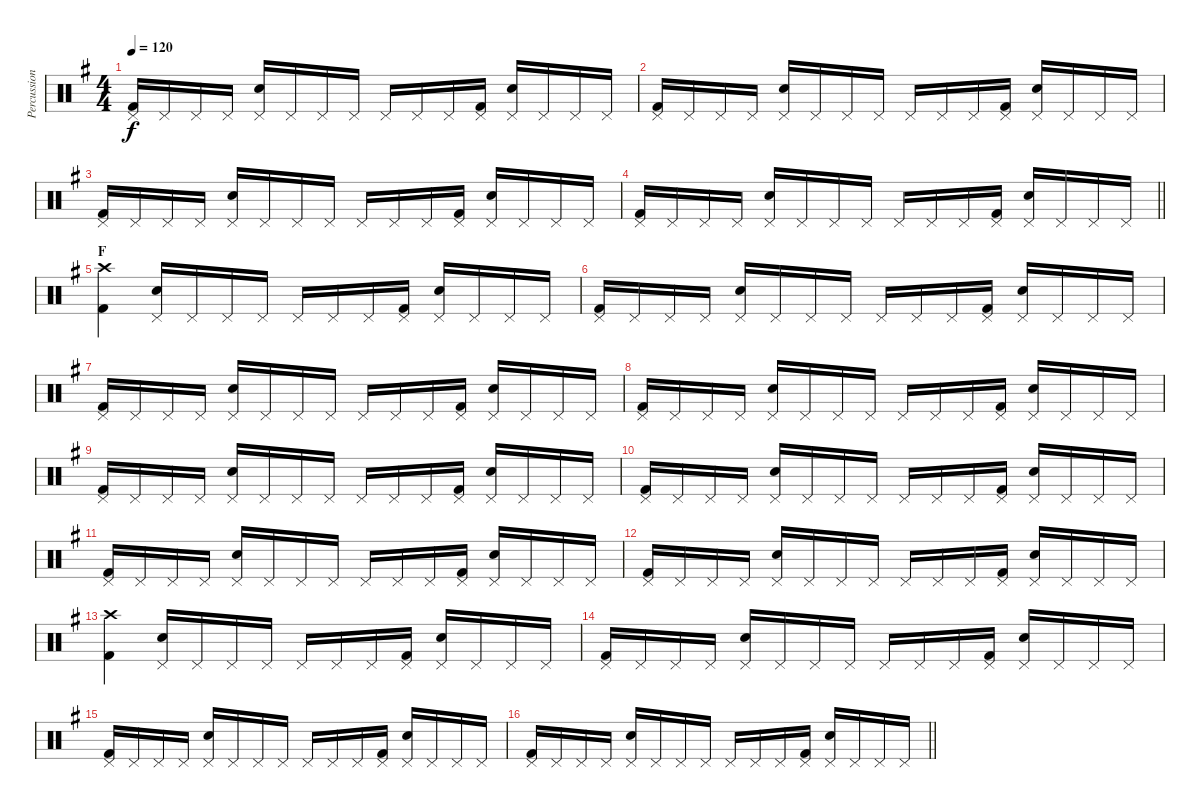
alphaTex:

\track ("Percussion" "Percussion") {instrument percussion}
\staff {score}
\articulation defaults
\ts (4 4)
\tempo 120
\clef neutral
\ks g
("Pedal Hi-Hat (hit)" "Kick (hit) 2").16{dy f} "Pedal Hi-Hat (hit)".16 "Pedal Hi-Hat (hit)".16 "Pedal Hi-Hat (hit)".16 ("Pedal Hi-Hat (hit)" "Electric Snare (hit)").16 "Pedal Hi-Hat (hit)".16 "Pedal Hi-Hat (hit)".16 "Pedal Hi-Hat (hit)".16 "Pedal Hi-Hat (hit)".16 "Pedal Hi-Hat (hit)".16 "Pedal Hi-Hat (hit)".16 ("Pedal Hi-Hat (hit)" "Kick (hit) 2").16 ("Pedal Hi-Hat (hit)" "Electric Snare (hit)").16 "Pedal Hi-Hat (hit)".16 "Pedal Hi-Hat (hit)".16 "Pedal Hi-Hat (hit)".16 |
("Pedal Hi-Hat (hit)" "Kick (hit) 2").16 "Pedal Hi-Hat (hit)".16 "Pedal Hi-Hat (hit)".16 "Pedal Hi-Hat (hit)".16 ("Pedal Hi-Hat (hit)" "Electric Snare (hit)").16 "Pedal Hi-Hat (hit)".16 "Pedal Hi-Hat (hit)".16 "Pedal Hi-Hat (hit)".16 "Pedal Hi-Hat (hit)".16 "Pedal Hi-Hat (hit)".16 "Pedal Hi-Hat (hit)".16 ("Pedal Hi-Hat (hit)" "Kick (hit) 2").16 ("Pedal Hi-Hat (hit)" "Electric Snare (hit)").16 "Pedal Hi-Hat (hit)".16 "Pedal Hi-Hat (hit)".16 "Pedal Hi-Hat (hit)".16 |
("Pedal Hi-Hat (hit)" "Kick (hit) 2").16 "Pedal Hi-Hat (hit)".16 "Pedal Hi-Hat (hit)".16 "Pedal Hi-Hat (hit)".16 ("Pedal Hi-Hat (hit)" "Electric Snare (hit)").16 "Pedal Hi-Hat (hit)".16 "Pedal Hi-Hat (hit)".16 "Pedal Hi-Hat (hit)".16 "Pedal Hi-Hat (hit)".16 "Pedal Hi-Hat (hit)".16 "Pedal Hi-Hat (hit)".16 ("Pedal Hi-Hat (hit)" "Kick (hit) 2").16 ("Pedal Hi-Hat (hit)" "Electric Snare (hit)").16 "Pedal Hi-Hat (hit)".16 "Pedal Hi-Hat (hit)".16 "Pedal Hi-Hat (hit)".16 |
\barLineRight lightlight
("Pedal Hi-Hat (hit)" "Kick (hit) 2").16 "Pedal Hi-Hat (hit)".16 "Pedal Hi-Hat (hit)".16 "Pedal Hi-Hat (hit)".16 ("Pedal Hi-Hat (hit)" "Electric Snare (hit)").16 "Pedal Hi-Hat (hit)".16 "Pedal Hi-Hat (hit)".16 "Pedal Hi-Hat (hit)".16 "Pedal Hi-Hat (hit)".16 "Pedal Hi-Hat (hit)".16 "Pedal Hi-Hat (hit)".16 ("Pedal Hi-Hat (hit)" "Kick (hit) 2").16 ("Pedal Hi-Hat (hit)" "Electric Snare (hit)").16 "Pedal Hi-Hat (hit)".16 "Pedal Hi-Hat (hit)".16 "Pedal Hi-Hat (hit)".16 |
\section ("" "F")
("Crash high (hit)" "Kick (hit) 2").4 ("Pedal Hi-Hat (hit)" "Electric Snare (hit)").16 "Pedal Hi-Hat (hit)".16 "Pedal Hi-Hat (hit)".16 "Pedal Hi-Hat (hit)".16 "Pedal Hi-Hat (hit)".16 "Pedal Hi-Hat (hit)".16 "Pedal Hi-Hat (hit)".16 ("Pedal Hi-Hat (hit)" "Kick (hit) 2").16 ("Pedal Hi-Hat (hit)" "Electric Snare (hit)").16 "Pedal Hi-Hat (hit)".16 "Pedal Hi-Hat (hit)".16 "Pedal Hi-Hat (hit)".16 |
("Pedal Hi-Hat (hit)" "Kick (hit) 2").16 "Pedal Hi-Hat (hit)".16 "Pedal Hi-Hat (hit)".16 "Pedal Hi-Hat (hit)".16 ("Pedal Hi-Hat (hit)" "Electric Snare (hit)").16 "Pedal Hi-Hat (hit)".16 "Pedal Hi-Hat (hit)".16 "Pedal Hi-Hat (hit)".16 "Pedal Hi-Hat (hit)".16 "Pedal Hi-Hat (hit)".16 "Pedal Hi-Hat (hit)".16 ("Pedal Hi-Hat (hit)" "Kick (hit) 2").16 ("Pedal Hi-Hat (hit)" "Electric Snare (hit)").16 "Pedal Hi-Hat (hit)".16 "Pedal Hi-Hat (hit)".16 "Pedal Hi-Hat (hit)".16 |
("Pedal Hi-Hat (hit)" "Kick (hit) 2").16 "Pedal Hi-Hat (hit)".16 "Pedal Hi-Hat (hit)".16 "Pedal Hi-Hat (hit)".16 ("Pedal Hi-Hat (hit)" "Electric Snare (hit)").16 "Pedal Hi-Hat (hit)".16 "Pedal Hi-Hat (hit)".16 "Pedal Hi-Hat (hit)".16 "Pedal Hi-Hat (hit)".16 "Pedal Hi-Hat (hit)".16 "Pedal Hi-Hat (hit)".16 ("Pedal Hi-Hat (hit)" "Kick (hit) 2").16 ("Pedal Hi-Hat (hit)" "Electric Snare (hit)").16 "Pedal Hi-Hat (hit)".16 "Pedal Hi-Hat (hit)".16 "Pedal Hi-Hat (hit)".16 |
("Pedal Hi-Hat (hit)" "Kick (hit) 2").16 "Pedal Hi-Hat (hit)".16 "Pedal Hi-Hat (hit)".16 "Pedal Hi-Hat (hit)".16 ("Pedal Hi-Hat (hit)" "Electric Snare (hit)").16 "Pedal Hi-Hat (hit)".16 "Pedal Hi-Hat (hit)".16 "Pedal Hi-Hat (hit)".16 "Pedal Hi-Hat (hit)".16 "Pedal Hi-Hat (hit)".16 "Pedal Hi-Hat (hit)".16 ("Pedal Hi-Hat (hit)" "Kick (hit) 2").16 ("Pedal Hi-Hat (hit)" "Electric Snare (hit)").16 "Pedal Hi-Hat (hit)".16 "Pedal Hi-Hat (hit)".16 "Pedal Hi-Hat (hit)".16 |
("Pedal Hi-Hat (hit)" "Kick (hit) 2").16 "Pedal Hi-Hat (hit)".16 "Pedal Hi-Hat (hit)".16 "Pedal Hi-Hat (hit)".16 ("Pedal Hi-Hat (hit)" "Electric Snare (hit)").16 "Pedal Hi-Hat (hit)".16 "Pedal Hi-Hat (hit)".16 "Pedal Hi-Hat (hit)".16 "Pedal Hi-Hat (hit)".16 "Pedal Hi-Hat (hit)".16 "Pedal Hi-Hat (hit)".16 ("Pedal Hi-Hat (hit)" "Kick (hit) 2").16 ("Pedal Hi-Hat (hit)" "Electric Snare (hit)").16 "Pedal Hi-Hat (hit)".16 "Pedal Hi-Hat (hit)".16 "Pedal Hi-Hat (hit)".16 |
("Pedal Hi-Hat (hit)" "Kick (hit) 2").16 "Pedal Hi-Hat (hit)".16 "Pedal Hi-Hat (hit)".16 "Pedal Hi-Hat (hit)".16 ("Pedal Hi-Hat (hit)" "Electric Snare (hit)").16 "Pedal Hi-Hat (hit)".16 "Pedal Hi-Hat (hit)".16 "Pedal Hi-Hat (hit)".16 "Pedal Hi-Hat (hit)".16 "Pedal Hi-Hat (hit)".16 "Pedal Hi-Hat (hit)".16 ("Pedal Hi-Hat (hit)" "Kick (hit) 2").16 ("Pedal Hi-Hat (hit)" "Electric Snare (hit)").16 "Pedal Hi-Hat (hit)".16 "Pedal Hi-Hat (hit)".16 "Pedal Hi-Hat (hit)".16 |
("Pedal Hi-Hat (hit)" "Kick (hit) 2").16 "Pedal Hi-Hat (hit)".16 "Pedal Hi-Hat (hit)".16 "Pedal Hi-Hat (hit)".16 ("Pedal Hi-Hat (hit)" "Electric Snare (hit)").16 "Pedal Hi-Hat (hit)".16 "Pedal Hi-Hat (hit)".16 "Pedal Hi-Hat (hit)".16 "Pedal Hi-Hat (hit)".16 "Pedal Hi-Hat (hit)".16 "Pedal Hi-Hat (hit)".16 ("Pedal Hi-Hat (hit)" "Kick (hit) 2").16 ("Pedal Hi-Hat (hit)" "Electric Snare (hit)").16 "Pedal Hi-Hat (hit)".16 "Pedal Hi-Hat (hit)".16 "Pedal Hi-Hat (hit)".16 |
("Pedal Hi-Hat (hit)" "Kick (hit) 2").16 "Pedal Hi-Hat (hit)".16 "Pedal Hi-Hat (hit)".16 "Pedal Hi-Hat (hit)".16 ("Pedal Hi-Hat (hit)" "Electric Snare (hit)").16 "Pedal Hi-Hat (hit)".16 "Pedal Hi-Hat (hit)".16 "Pedal Hi-Hat (hit)".16 "Pedal Hi-Hat (hit)".16 "Pedal Hi-Hat (hit)".16 "Pedal Hi-Hat (hit)".16 ("Pedal Hi-Hat (hit)" "Kick (hit) 2").16 ("Pedal Hi-Hat (hit)" "Electric Snare (hit)").16 "Pedal Hi-Hat (hit)".16 "Pedal Hi-Hat (hit)".16 "Pedal Hi-Hat (hit)".16 |
("Crash high (hit)" "Kick (hit) 2").4 ("Pedal Hi-Hat (hit)" "Electric Snare (hit)").16 "Pedal Hi-Hat (hit)".16 "Pedal Hi-Hat (hit)".16 "Pedal Hi-Hat (hit)".16 "Pedal Hi-Hat (hit)".16 "Pedal Hi-Hat (hit)".16 "Pedal Hi-Hat (hit)".16 ("Pedal Hi-Hat (hit)" "Kick (hit) 2").16 ("Pedal Hi-Hat (hit)" "Electric Snare (hit)").16 "Pedal Hi-Hat (hit)".16 "Pedal Hi-Hat (hit)".16 "Pedal Hi-Hat (hit)".16 |
("Pedal Hi-Hat (hit)" "Kick (hit) 2").16 "Pedal Hi-Hat (hit)".16 "Pedal Hi-Hat (hit)".16 "Pedal Hi-Hat (hit)".16 ("Pedal Hi-Hat (hit)" "Electric Snare (hit)").16 "Pedal Hi-Hat (hit)".16 "Pedal Hi-Hat (hit)".16 "Pedal Hi-Hat (hit)".16 "Pedal Hi-Hat (hit)".16 "Pedal Hi-Hat (hit)".16 "Pedal Hi-Hat (hit)".16 ("Pedal Hi-Hat (hit)" "Kick (hit) 2").16 ("Pedal Hi-Hat (hit)" "Electric Snare (hit)").16 "Pedal Hi-Hat (hit)".16 "Pedal Hi-Hat (hit)".16 "Pedal Hi-Hat (hit)".16 |
("Pedal Hi-Hat (hit)" "Kick (hit) 2").16 "Pedal Hi-Hat (hit)".16 "Pedal Hi-Hat (hit)".16 "Pedal Hi-Hat (hit)".16 ("Pedal Hi-Hat (hit)" "Electric Snare (hit)").16 "Pedal Hi-Hat (hit)".16 "Pedal Hi-Hat (hit)".16 "Pedal Hi-Hat (hit)".16 "Pedal Hi-Hat (hit)".16 "Pedal Hi-Hat (hit)".16 "Pedal Hi-Hat (hit)".16 ("Pedal Hi-Hat (hit)" "Kick (hit) 2").16 ("Pedal Hi-Hat (hit)" "Electric Snare (hit)").16 "Pedal Hi-Hat (hit)".16 "Pedal Hi-Hat (hit)".16 "Pedal Hi-Hat (hit)".16 |
\barLineRight lightlight
("Pedal Hi-Hat (hit)" "Kick (hit) 2").16 "Pedal Hi-Hat (hit)".16 "Pedal Hi-Hat (hit)".16 "Pedal Hi-Hat (hit)".16 ("Pedal Hi-Hat (hit)" "Electric Snare (hit)").16 "Pedal Hi-Hat (hit)".16 "Pedal Hi-Hat (hit)".16 "Pedal Hi-Hat (hit)".16 "Pedal Hi-Hat (hit)".16 "Pedal Hi-Hat (hit)".16 "Pedal Hi-Hat (hit)".16 ("Pedal Hi-Hat (hit)" "Kick (hit) 2").16 ("Pedal Hi-Hat (hit)" "Electric Snare (hit)").16 "Pedal Hi-Hat (hit)".16 "Pedal Hi-Hat (hit)".16 "Pedal Hi-Hat (hit)".16
